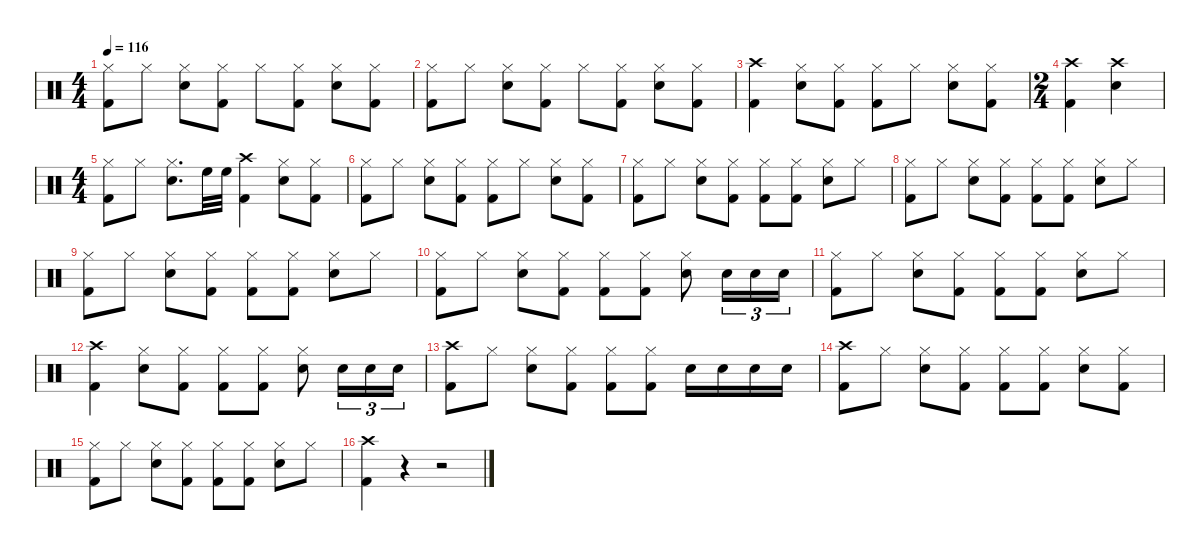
\defaultSystemsLayout 4
\hideDynamics
\bracketExtendMode nobrackets
\singleTrackTrackNamePolicy hidden
\multiTrackTrackNamePolicy hidden
\firstSystemTrackNameMode fullname
\firstSystemTrackNameOrientation horizontal
\otherSystemsTrackNameOrientation horizontal
\track ("Drums" "drm.") {instrument percussion}
\staff {score}
\articulation defaults
\ts (4 4)
\tempo 116
\clef neutral
\ks c
("Hi-Hat (closed)" "Kick (hit) 2").8{dy f beam Down} "Hi-Hat (closed)".8{beam Down} ("Hi-Hat (closed)" "Snare (hit) 2").8{beam Down} ("Hi-Hat (closed)" "Kick (hit) 2").8{beam Down} "Hi-Hat (closed)".8{beam Down} ("Hi-Hat (closed)" "Kick (hit) 2").8{beam Down} ("Hi-Hat (closed)" "Snare (hit) 2").8{beam Down} ("Hi-Hat (closed)" "Kick (hit) 2").8{beam Down} |
("Hi-Hat (closed)" "Kick (hit) 2").8{beam Down} "Hi-Hat (closed)".8{beam Down} ("Hi-Hat (closed)" "Snare (hit) 2").8{beam Down} ("Hi-Hat (closed)" "Kick (hit) 2").8{beam Down} "Hi-Hat (closed)".8{beam Down} ("Hi-Hat (closed)" "Kick (hit) 2").8{beam Down} ("Hi-Hat (closed)" "Snare (hit) 2").8{beam Down} ("Hi-Hat (closed)" "Kick (hit) 2").8{beam Down} |
("Crash high (hit)" "Kick (hit) 2").4{beam Down} ("Hi-Hat (closed)" "Snare (hit) 2").8{beam Down} ("Hi-Hat (closed)" "Kick (hit) 2").8{beam Down} ("Hi-Hat (closed)" "Kick (hit) 2").8{beam Down} "Hi-Hat (closed)".8{beam Down} ("Hi-Hat (closed)" "Snare (hit) 2").8{beam Down} ("Hi-Hat (closed)" "Kick (hit) 2").8{beam Down} |
\ts (2 4)
("Crash high (hit)" "Kick (hit) 2").4{beam Down} ("Crash high (hit)" "Snare (hit) 2").4{beam Down} |
\ts (4 4)
("Hi-Hat (closed)" "Kick (hit) 2").8{beam Down} "Hi-Hat (closed)".8{beam Down} ("Hi-Hat (closed)" "Snare (hit) 2").8{d beam Down} "High Floor Tom (hit)".32{beam Down} "High Floor Tom (hit)".32{beam Down} ("Crash high (hit)" "Kick (hit) 2").4{beam Down} ("Hi-Hat (closed)" "Snare (hit) 2").8{beam Down} ("Hi-Hat (closed)" "Kick (hit) 2").8{beam Down} |
("Hi-Hat (closed)" "Kick (hit) 2").8{beam Down} "Hi-Hat (closed)".8{beam Down} ("Hi-Hat (closed)" "Snare (hit) 2").8{beam Down} ("Hi-Hat (closed)" "Kick (hit) 2").8{beam Down} ("Hi-Hat (closed)" "Kick (hit) 2").8{beam Down} "Hi-Hat (closed)".8{beam Down} ("Hi-Hat (closed)" "Snare (hit) 2").8{beam Down} ("Hi-Hat (closed)" "Kick (hit) 2").8{beam Down} |
("Hi-Hat (closed)" "Kick (hit) 2").8{beam Down} "Hi-Hat (closed)".8{beam Down} ("Hi-Hat (closed)" "Snare (hit) 2").8{beam Down} ("Hi-Hat (closed)" "Kick (hit) 2").8{beam Down} ("Hi-Hat (closed)" "Kick (hit) 2").8{beam Down} ("Hi-Hat (closed)" "Kick (hit) 2").8{beam Down} ("Hi-Hat (closed)" "Snare (hit) 2").8{beam Down} "Hi-Hat (closed)".8{beam Down} |
("Hi-Hat (closed)" "Kick (hit) 2").8{beam Down} "Hi-Hat (closed)".8{beam Down} ("Hi-Hat (closed)" "Snare (hit) 2").8{beam Down} ("Hi-Hat (closed)" "Kick (hit) 2").8{beam Down} ("Hi-Hat (closed)" "Kick (hit) 2").8{beam Down} ("Hi-Hat (closed)" "Kick (hit) 2").8{beam Down} ("Hi-Hat (closed)" "Snare (hit) 2").8{beam Down} "Hi-Hat (closed)".8{beam Down} |
("Hi-Hat (closed)" "Kick (hit) 2").8{beam Down} "Hi-Hat (closed)".8{beam Down} ("Hi-Hat (closed)" "Snare (hit) 2").8{beam Down} ("Hi-Hat (closed)" "Kick (hit) 2").8{beam Down} ("Hi-Hat (closed)" "Kick (hit) 2").8{beam Down} ("Hi-Hat (closed)" "Kick (hit) 2").8{beam Down} ("Hi-Hat (closed)" "Snare (hit) 2").8{beam Down} "Hi-Hat (closed)".8{beam Down} |
("Hi-Hat (closed)" "Kick (hit) 2").8{beam Down} "Hi-Hat (closed)".8{beam Down} ("Hi-Hat (closed)" "Snare (hit) 2").8{beam Down} ("Hi-Hat (closed)" "Kick (hit) 2").8{beam Down} ("Hi-Hat (closed)" "Kick (hit) 2").8{beam Down} ("Hi-Hat (closed)" "Kick (hit) 2").8{beam Down} ("Hi-Hat (closed)" "Snare (hit) 2").8{beam Down} "Snare (hit) 2".16{tu (3 2) beam Down} "Snare (hit) 2".16{tu (3 2) beam Down} "Snare (hit) 2".16{tu (3 2) beam Down} |
("Hi-Hat (closed)" "Kick (hit) 2").8{beam Down} "Hi-Hat (closed)".8{beam Down} ("Hi-Hat (closed)" "Snare (hit) 2").8{beam Down} ("Hi-Hat (closed)" "Kick (hit) 2").8{beam Down} ("Hi-Hat (closed)" "Kick (hit) 2").8{beam Down} ("Hi-Hat (closed)" "Kick (hit) 2").8{beam Down} ("Hi-Hat (closed)" "Snare (hit) 2").8{beam Down} "Hi-Hat (closed)".8{beam Down} |
("Crash high (hit)" "Kick (hit) 2").4{beam Down} ("Hi-Hat (closed)" "Snare (hit) 2").8{beam Down} ("Hi-Hat (closed)" "Kick (hit) 2").8{beam Down} ("Hi-Hat (closed)" "Kick (hit) 2").8{beam Down} ("Hi-Hat (closed)" "Kick (hit) 2").8{beam Down} ("Hi-Hat (closed)" "Snare (hit) 2").8{beam Down} "Snare (hit) 2".16{tu (3 2) beam Down} "Snare (hit) 2".16{tu (3 2) beam Down} "Snare (hit) 2".16{tu (3 2) beam Down} |
("Crash high (hit)" "Kick (hit) 2").8{beam Down} "Hi-Hat (closed)".8{beam Down} ("Hi-Hat (closed)" "Snare (hit) 2").8{beam Down} ("Hi-Hat (closed)" "Kick (hit) 2").8{beam Down} ("Hi-Hat (closed)" "Kick (hit) 2").8{beam Down} ("Hi-Hat (closed)" "Kick (hit) 2").8{beam Down} "Snare (hit) 2".16{beam Down} "Snare (hit) 2".16{beam Down} "Snare (hit) 2".16{beam Down} "Snare (hit) 2".16{beam Down} |
("Crash high (hit)" "Kick (hit) 2").8{beam Down} "Hi-Hat (closed)".8{beam Down} ("Hi-Hat (closed)" "Snare (hit) 2").8{beam Down} ("Hi-Hat (closed)" "Kick (hit) 2").8{beam Down} ("Hi-Hat (closed)" "Kick (hit) 2").8{beam Down} ("Hi-Hat (closed)" "Kick (hit) 2").8{beam Down} ("Hi-Hat (closed)" "Snare (hit) 2").8{beam Down} ("Hi-Hat (closed)" "Kick (hit) 2").8{beam Down} |
("Hi-Hat (closed)" "Kick (hit) 2").8{beam Down} "Hi-Hat (closed)".8{beam Down} ("Hi-Hat (closed)" "Snare (hit) 2").8{beam Down} ("Hi-Hat (closed)" "Kick (hit) 2").8{beam Down} ("Hi-Hat (closed)" "Kick (hit) 2").8{beam Down} ("Hi-Hat (closed)" "Kick (hit) 2").8{beam Down} ("Hi-Hat (closed)" "Snare (hit) 2").8{beam Down} "Hi-Hat (closed)".8{beam Down} |
("Crash high (hit)" "Kick (hit) 2").4{beam Down} r.4{beam Down} r.2{beam Down}
